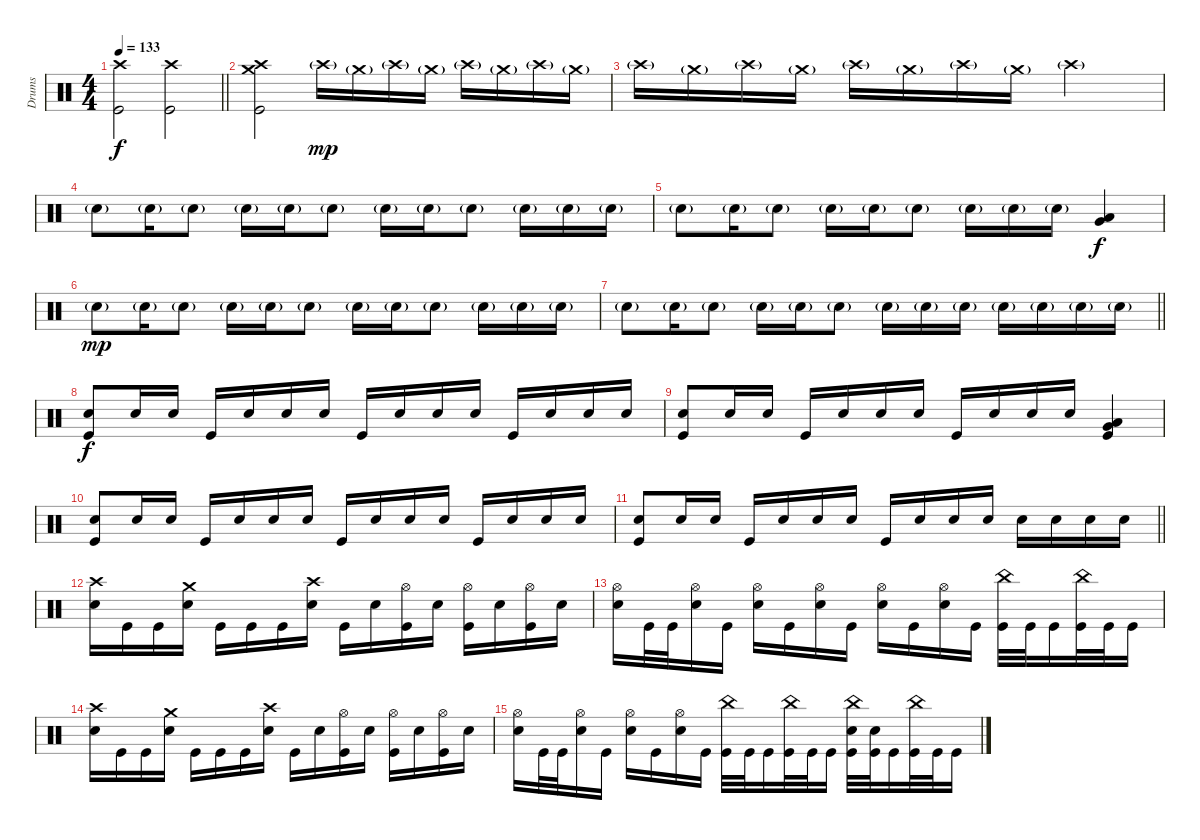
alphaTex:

\track ("Drums" "Drums") {instrument percussion}
\staff
\articulation defaults
\ts (4 4)
\tempo 133
\clef neutral
\barLineRight lightlight
\ks c
("Crash high (hit)" "Kick (hit)").2{dy f} ("Crash high (hit)" "Kick (hit)").2 |
\section ("" "")
("Crash high (hit)" "Crash medium (hit)" "Kick (hit)").2 "Crash high (hit)"{g}.16{dy mp} "Crash medium (hit)"{g}.16 "Crash high (hit)"{g}.16 "Crash medium (hit)"{g}.16 "Crash high (hit)"{g}.16 "Crash medium (hit)"{g}.16 "Crash high (hit)"{g}.16 "Crash medium (hit)"{g}.16 |
"Crash high (hit)"{g}.16 "Crash medium (hit)"{g}.16 "Crash high (hit)"{g}.16 "Crash medium (hit)"{g}.16 "Crash high (hit)"{g}.16 "Crash medium (hit)"{g}.16 "Crash high (hit)"{g}.16 "Crash medium (hit)"{g}.16 "Crash high (hit)"{g}.2 |
"Electric Snare (hit)"{g}.8 "Electric Snare (hit)"{g}.16 "Electric Snare (hit)"{g}.8 "Electric Snare (hit)"{g}.16 "Electric Snare (hit)"{g}.16 "Electric Snare (hit)"{g}.8 "Electric Snare (hit)"{g}.16 "Electric Snare (hit)"{g}.16 "Electric Snare (hit)"{g}.8 "Electric Snare (hit)"{g}.16 "Electric Snare (hit)"{g}.16 "Electric Snare (hit)"{g}.16 |
"Electric Snare (hit)"{g}.8 "Electric Snare (hit)"{g}.16 "Electric Snare (hit)"{g}.8 "Electric Snare (hit)"{g}.16 "Electric Snare (hit)"{g}.16 "Electric Snare (hit)"{g}.8 "Electric Snare (hit)"{g}.16 "Electric Snare (hit)"{g}.16 "Electric Snare (hit)"{g}.16 ("Very Low Tom (hit)" "Low Floor Tom (hit)").4{dy f} |
"Electric Snare (hit)"{g}.8{dy mp} "Electric Snare (hit)"{g}.16 "Electric Snare (hit)"{g}.8 "Electric Snare (hit)"{g}.16 "Electric Snare (hit)"{g}.16 "Electric Snare (hit)"{g}.8 "Electric Snare (hit)"{g}.16 "Electric Snare (hit)"{g}.16 "Electric Snare (hit)"{g}.8 "Electric Snare (hit)"{g}.16 "Electric Snare (hit)"{g}.16 "Electric Snare (hit)"{g}.16 |
\barLineRight lightlight "Electric Snare (hit)"{g}.8 "Electric Snare (hit)"{g}.16 "Electric Snare (hit)"{g}.8 "Electric Snare (hit)"{g}.16 "Electric Snare (hit)"{g}.16 "Electric Snare (hit)"{g}.8 "Electric Snare (hit)"{g}.16 "Electric Snare (hit)"{g}.16 "Electric Snare (hit)"{g}.16 "Electric Snare (hit)"{g}.16 "Electric Snare (hit)"{g}.16 "Electric Snare (hit)"{g}.16 "Electric Snare (hit)"{g}.16
|
("Electric Snare (hit)" "Kick (hit)").8{dy f} "Electric Snare (hit)".16 "Electric Snare (hit)".16 "Kick (hit)".16 "Electric Snare (hit)".16 "Electric Snare (hit)".16 "Electric Snare (hit)".16 "Kick (hit)".16 "Electric Snare (hit)".16 "Electric Snare (hit)".16 "Electric Snare (hit)".16 "Kick (hit)".16 "Electric Snare (hit)".16 "Electric Snare (hit)".16 "Electric Snare (hit)".16 |
("Electric Snare (hit)" "Kick (hit)").8 "Electric Snare (hit)".16 "Electric Snare (hit)".16 "Kick (hit)".16 "Electric Snare (hit)".16 "Electric Snare (hit)".16 "Electric Snare (hit)".16 "Kick (hit)".16 "Electric Snare (hit)".16 "Electric Snare (hit)".16 "Electric Snare (hit)".16 ("Very Low Tom (hit)" "Low Floor Tom (hit)" "Kick (hit)").4 |
("Electric Snare (hit)" "Kick (hit)").8 "Electric Snare (hit)".16 "Electric Snare (hit)".16 "Kick (hit)".16 "Electric Snare (hit)".16 "Electric Snare (hit)".16 "Electric Snare (hit)".16 "Kick (hit)".16 "Electric Snare (hit)".16 "Electric Snare (hit)".16 "Electric Snare (hit)".16 "Kick (hit)".16 "Electric Snare (hit)".16 "Electric Snare (hit)".16 "Electric Snare (hit)".16 |
\barLineRight lightlight
("Electric Snare (hit)" "Kick (hit)").8 "Electric Snare (hit)".16 "Electric Snare (hit)".16 "Kick (hit)".16 "Electric Snare (hit)".16 "Electric Snare (hit)".16 "Electric Snare (hit)".16 "Kick (hit)".16 "Electric Snare (hit)".16 "Electric Snare (hit)".16 "Electric Snare (hit)".16 "Electric Snare (hit)".16 "Electric Snare (hit)".16 "Electric Snare (hit)".16 "Electric Snare (hit)".16 |
("Crash high (hit)" "Electric Snare (hit)").16 "Kick (hit)".16 "Kick (hit)".16 ("Crash medium (hit)" "Electric Snare (hit)").16 "Kick (hit)".16 "Kick (hit)".16 "Kick (hit)".16 ("Crash high (hit)" "Electric Snare (hit)").16 "Kick (hit)".16 "Electric Snare (hit)".16 ("Hi-Hat (open)" "Kick (hit)").16 "Electric Snare (hit)".16 ("Hi-Hat (open)" "Kick (hit)").16 "Electric Snare (hit)".16 ("Hi-Hat (open)" "Kick (hit)").16 "Electric Snare (hit)".16 |
("Hi-Hat (open)" "Electric Snare (hit)").16 "Kick (hit)".32 "Kick (hit)".32 ("Hi-Hat (open)" "Electric Snare (hit)").16 "Kick (hit)".16 ("Hi-Hat (open)" "Electric Snare (hit)").16 "Kick (hit)".16 ("Hi-Hat (open)" "Electric Snare (hit)").16 "Kick (hit)".16 ("Hi-Hat (open)" "Electric Snare (hit)").16 "Kick (hit)".16 ("Hi-Hat (open)" "Electric Snare (hit)").16 "Kick (hit)".16 ("China (hit)" "Kick (hit)").32 "Kick (hit)".32 "Kick (hit)".16 ("China (hit)" "Kick (hit)").32 "Kick (hit)".32 "Kick (hit)".16 |
("Crash high (hit)" "Electric Snare (hit)").16 "Kick (hit)".16 "Kick (hit)".16 ("Crash medium (hit)" "Electric Snare (hit)").16 "Kick (hit)".16 "Kick (hit)".16 "Kick (hit)".16 ("Crash high (hit)" "Electric Snare (hit)").16 "Kick (hit)".16 "Electric Snare (hit)".16 ("Hi-Hat (open)" "Kick (hit)").16 "Electric Snare (hit)".16 ("Hi-Hat (open)" "Kick (hit)").16 "Electric Snare (hit)".16 ("Hi-Hat (open)" "Kick (hit)").16 "Electric Snare (hit)".16 |
("Hi-Hat (open)" "Electric Snare (hit)").16 "Kick (hit)".32 "Kick (hit)".32 ("Hi-Hat (open)" "Electric Snare (hit)").16 "Kick (hit)".16 ("Hi-Hat (open)" "Electric Snare (hit)").16 "Kick (hit)".16 ("Hi-Hat (open)" "Electric Snare (hit)").16 "Kick (hit)".16 ("China (hit)" "Kick (hit)").32 "Kick (hit)".32 "Kick (hit)".16 ("China (hit)" "Kick (hit)").32 "Kick (hit)".32 "Kick (hit)".16 ("China (hit)" "Electric Snare (hit)" "Kick (hit)").32 ("Electric Snare (hit)" "Kick (hit)").32 "Kick (hit)".16 ("China (hit)" "Kick (hit)").32 "Kick (hit)".32 "Kick (hit)".16
